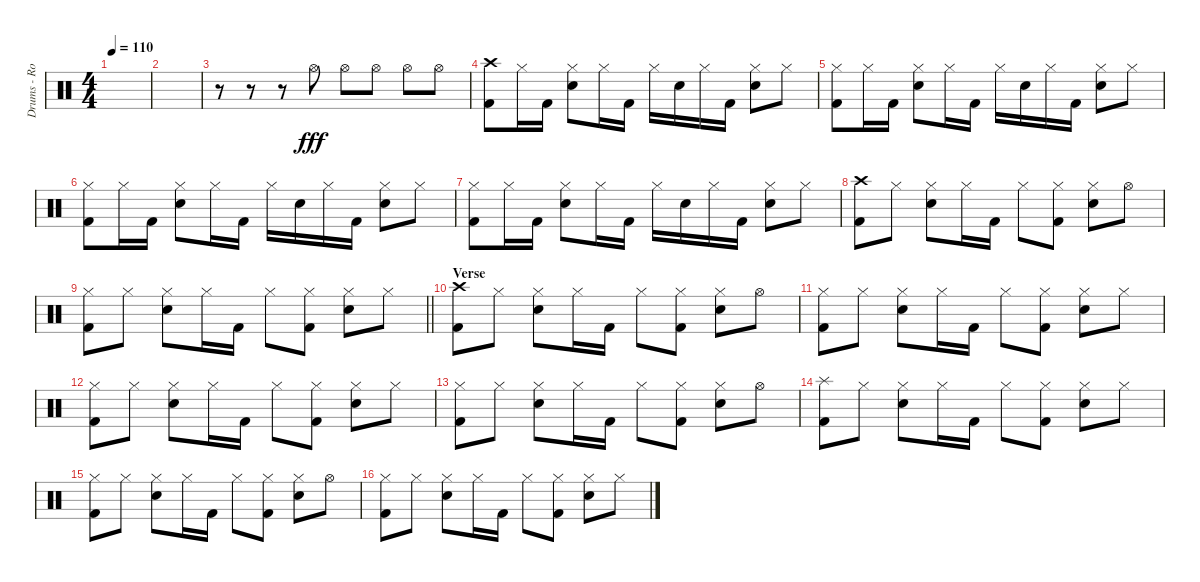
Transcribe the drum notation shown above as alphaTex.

\track ("Drums - Rob Bourdon" "Drums - Ro") {instrument percussion}
\staff {score}
\articulation defaults
\ts (4 4)
\tempo 110
\clef neutral
\ks c
|
|
r.8{volume 13} r.8 r.8 "Hi-Hat (open)".8{dy fff} "Hi-Hat (open)".8 "Hi-Hat (open)".8 "Hi-Hat (open)".8 "Hi-Hat (open)".8 |
("Crash high (hit)" "Kick (hit) 2").8 "Hi-Hat (closed)".16 "Kick (hit) 2".16 ("Hi-Hat (closed)" "Snare (hit) 2").8 "Hi-Hat (closed)".16 "Kick (hit) 2".16 "Hi-Hat (closed)".16 "Snare (hit) 2".16 "Hi-Hat (closed)".16 "Kick (hit) 2".16 ("Hi-Hat (closed)" "Snare (hit) 2").8 "Hi-Hat (closed)".8 |
("Hi-Hat (closed)" "Kick (hit) 2").8 "Hi-Hat (closed)".16 "Kick (hit) 2".16 ("Hi-Hat (closed)" "Snare (hit) 2").8 "Hi-Hat (closed)".16 "Kick (hit) 2".16 "Hi-Hat (closed)".16 "Snare (hit) 2".16 "Hi-Hat (closed)".16 "Kick (hit) 2".16 ("Hi-Hat (closed)" "Snare (hit) 2").8 "Hi-Hat (closed)".8 |
("Hi-Hat (closed)" "Kick (hit) 2").8 "Hi-Hat (closed)".16 "Kick (hit) 2".16 ("Hi-Hat (closed)" "Snare (hit) 2").8 "Hi-Hat (closed)".16 "Kick (hit) 2".16 "Hi-Hat (closed)".16 "Snare (hit) 2".16 "Hi-Hat (closed)".16 "Kick (hit) 2".16 ("Hi-Hat (closed)" "Snare (hit) 2").8 "Hi-Hat (closed)".8 |
("Hi-Hat (closed)" "Kick (hit) 2").8 "Hi-Hat (closed)".16 "Kick (hit) 2".16 ("Hi-Hat (closed)" "Snare (hit) 2").8 "Hi-Hat (closed)".16 "Kick (hit) 2".16 "Hi-Hat (closed)".16 "Snare (hit) 2".16 "Hi-Hat (closed)".16 "Kick (hit) 2".16 ("Hi-Hat (closed)" "Snare (hit) 2").8 "Hi-Hat (closed)".8 |
("Crash high (hit)" "Kick (hit) 2").8 "Hi-Hat (closed)".8 ("Hi-Hat (closed)" "Snare (hit) 2").8 "Hi-Hat (closed)".16 "Kick (hit) 2".16 "Hi-Hat (closed)".8 ("Hi-Hat (closed)" "Kick (hit) 2").8 ("Hi-Hat (closed)" "Snare (hit) 2").8 "Hi-Hat (open)".8 |
\barLineRight lightlight
("Hi-Hat (closed)" "Kick (hit) 2").8 "Hi-Hat (closed)".8 ("Hi-Hat (closed)" "Snare (hit) 2").8 "Hi-Hat (closed)".16 "Kick (hit) 2".16 "Hi-Hat (closed)".8 ("Hi-Hat (closed)" "Kick (hit) 2").8 ("Hi-Hat (closed)" "Snare (hit) 2").8 "Hi-Hat (closed)".8 |
\section ("" "Verse")
("Crash high (hit)" "Kick (hit) 2").8 "Hi-Hat (closed)".8 ("Hi-Hat (closed)" "Snare (hit) 2").8 "Hi-Hat (closed)".16 "Kick (hit) 2".16 "Hi-Hat (closed)".8 ("Hi-Hat (closed)" "Kick (hit) 2").8 ("Hi-Hat (closed)" "Snare (hit) 2").8 "Hi-Hat (open)".8 |
("Hi-Hat (closed)" "Kick (hit) 2").8 "Hi-Hat (closed)".8 ("Hi-Hat (closed)" "Snare (hit) 2").8 "Hi-Hat (closed)".16 "Kick (hit) 2".16 "Hi-Hat (closed)".8 ("Hi-Hat (closed)" "Kick (hit) 2").8 ("Hi-Hat (closed)" "Snare (hit) 2").8 "Hi-Hat (closed)".8 |
("Hi-Hat (closed)" "Kick (hit) 2").8 "Hi-Hat (closed)".8 ("Hi-Hat (closed)" "Snare (hit) 2").8 "Hi-Hat (closed)".16 "Kick (hit) 2".16 "Hi-Hat (closed)".8 ("Hi-Hat (closed)" "Kick (hit) 2").8 ("Hi-Hat (closed)" "Snare (hit) 2").8 "Hi-Hat (closed)".8 |
("Hi-Hat (closed)" "Kick (hit) 2").8 "Hi-Hat (closed)".8 ("Hi-Hat (closed)" "Snare (hit) 2").8 "Hi-Hat (closed)".16 "Kick (hit) 2".16 "Hi-Hat (closed)".8 ("Hi-Hat (closed)" "Kick (hit) 2").8 ("Hi-Hat (closed)" "Snare (hit) 2").8 "Hi-Hat (open)".8 |
("Splash (hit)" "Kick (hit) 2").8 "Hi-Hat (closed)".8 ("Hi-Hat (closed)" "Snare (hit) 2").8 "Hi-Hat (closed)".16 "Kick (hit) 2".16 "Hi-Hat (closed)".8 ("Hi-Hat (closed)" "Kick (hit) 2").8 ("Hi-Hat (closed)" "Snare (hit) 2").8 "Hi-Hat (closed)".8 |
("Hi-Hat (closed)" "Kick (hit) 2").8 "Hi-Hat (closed)".8 ("Hi-Hat (closed)" "Snare (hit) 2").8 "Hi-Hat (closed)".16 "Kick (hit) 2".16 "Hi-Hat (closed)".8 ("Hi-Hat (closed)" "Kick (hit) 2").8 ("Hi-Hat (closed)" "Snare (hit) 2").8 "Hi-Hat (open)".8 |
("Hi-Hat (closed)" "Kick (hit) 2").8 "Hi-Hat (closed)".8 ("Hi-Hat (closed)" "Snare (hit) 2").8 "Hi-Hat (closed)".16 "Kick (hit) 2".16 "Hi-Hat (closed)".8 ("Hi-Hat (closed)" "Kick (hit) 2").8 ("Hi-Hat (closed)" "Snare (hit) 2").8 "Hi-Hat (closed)".8
